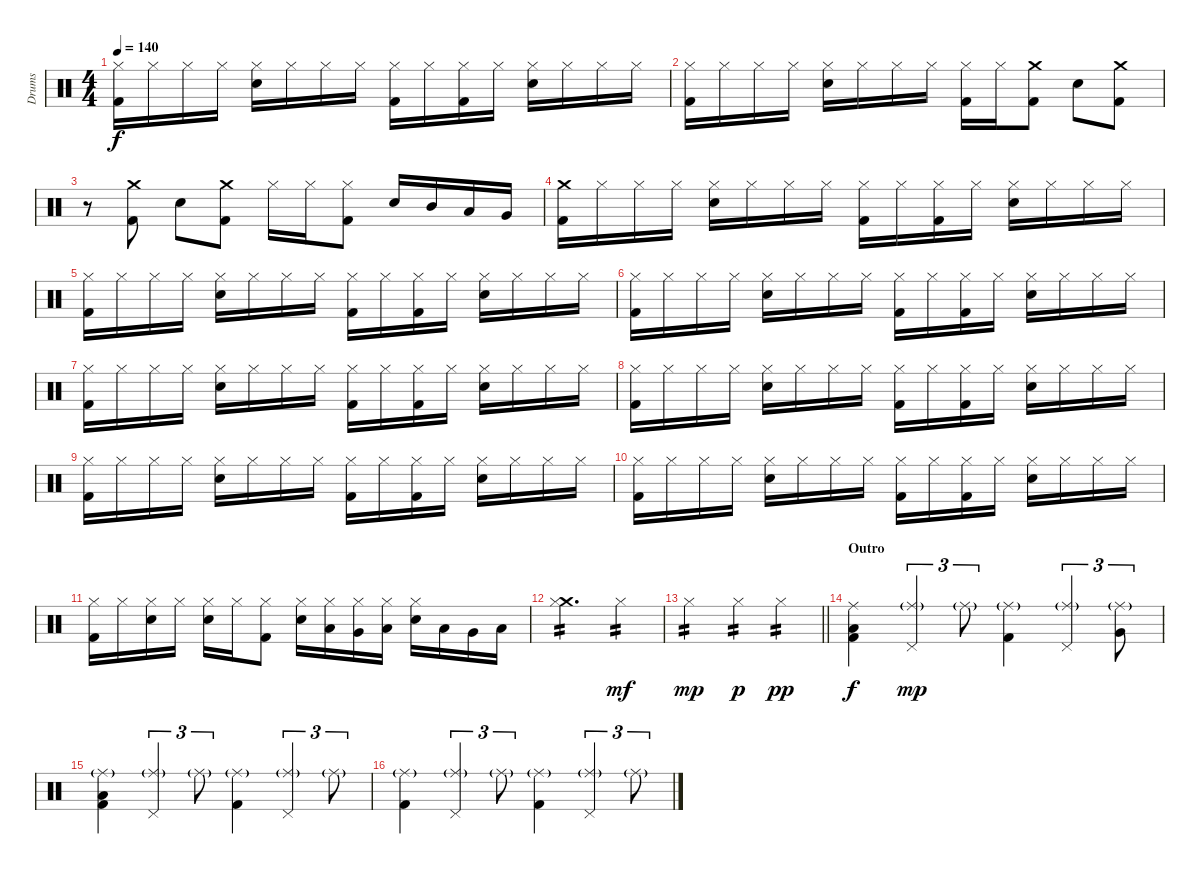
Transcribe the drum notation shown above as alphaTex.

\track ("Drums" "Drums") {instrument percussion}
\staff {score}
\articulation defaults
\ts (4 4)
\tempo 140
\clef neutral
\ks c
("Hi-Hat (closed)" "Kick (hit) 2").16{dy f} "Hi-Hat (closed)".16 "Hi-Hat (closed)".16 "Hi-Hat (closed)".16 ("Hi-Hat (closed)" "Snare (hit) 2").16 "Hi-Hat (closed)".16 "Hi-Hat (closed)".16 "Hi-Hat (closed)".16 ("Hi-Hat (closed)" "Kick (hit) 2").16 "Hi-Hat (closed)".16 ("Hi-Hat (closed)" "Kick (hit) 2").16 "Hi-Hat (closed)".16 ("Hi-Hat (closed)" "Snare (hit) 2").16 "Hi-Hat (closed)".16 "Hi-Hat (closed)".16 "Hi-Hat (closed)".16 |
("Hi-Hat (closed)" "Kick (hit) 2").16 "Hi-Hat (closed)".16 "Hi-Hat (closed)".16 "Hi-Hat (closed)".16 ("Hi-Hat (closed)" "Snare (hit) 2").16 "Hi-Hat (closed)".16 "Hi-Hat (closed)".16 "Hi-Hat (closed)".16 ("Hi-Hat (closed)" "Kick (hit) 2").16 "Hi-Hat (closed)".16 ("Crash medium (hit)" "Kick (hit) 2").8 "Snare (hit) 2".8 ("Crash medium (hit)" "Kick (hit) 2").8 |
r.8 ("Crash medium (hit)" "Kick (hit) 2").8 "Snare (hit) 2".8 ("Crash medium (hit)" "Kick (hit) 2").8 "Hi-Hat (closed)".16 "Hi-Hat (closed)".16 ("Hi-Hat (closed)" "Kick (hit) 2").8 "Snare (hit) 2".16 "Mid Tom (hit)".16 "Low Tom (hit)".16 "Very Low Tom (hit)".16 |
("Crash medium (hit)" "Kick (hit) 2").16 "Hi-Hat (closed)".16 "Hi-Hat (closed)".16 "Hi-Hat (closed)".16 ("Hi-Hat (closed)" "Snare (hit) 2").16 "Hi-Hat (closed)".16 "Hi-Hat (closed)".16 "Hi-Hat (closed)".16 ("Hi-Hat (closed)" "Kick (hit) 2").16 "Hi-Hat (closed)".16 ("Hi-Hat (closed)" "Kick (hit) 2").16 "Hi-Hat (closed)".16 ("Hi-Hat (closed)" "Snare (hit) 2").16 "Hi-Hat (closed)".16 "Hi-Hat (closed)".16 "Hi-Hat (closed)".16 |
("Hi-Hat (closed)" "Kick (hit) 2").16 "Hi-Hat (closed)".16 "Hi-Hat (closed)".16 "Hi-Hat (closed)".16 ("Hi-Hat (closed)" "Snare (hit) 2").16 "Hi-Hat (closed)".16 "Hi-Hat (closed)".16 "Hi-Hat (closed)".16 ("Hi-Hat (closed)" "Kick (hit) 2").16 "Hi-Hat (closed)".16 ("Hi-Hat (closed)" "Kick (hit) 2").16 "Hi-Hat (closed)".16 ("Hi-Hat (closed)" "Snare (hit) 2").16 "Hi-Hat (closed)".16 "Hi-Hat (closed)".16 "Hi-Hat (closed)".16 |
("Hi-Hat (closed)" "Kick (hit) 2").16 "Hi-Hat (closed)".16 "Hi-Hat (closed)".16 "Hi-Hat (closed)".16 ("Hi-Hat (closed)" "Snare (hit) 2").16 "Hi-Hat (closed)".16 "Hi-Hat (closed)".16 "Hi-Hat (closed)".16 ("Hi-Hat (closed)" "Kick (hit) 2").16 "Hi-Hat (closed)".16 ("Hi-Hat (closed)" "Kick (hit) 2").16 "Hi-Hat (closed)".16 ("Hi-Hat (closed)" "Snare (hit) 2").16 "Hi-Hat (closed)".16 "Hi-Hat (closed)".16 "Hi-Hat (closed)".16 |
("Hi-Hat (closed)" "Kick (hit) 2").16 "Hi-Hat (closed)".16 "Hi-Hat (closed)".16 "Hi-Hat (closed)".16 ("Hi-Hat (closed)" "Snare (hit) 2").16 "Hi-Hat (closed)".16 "Hi-Hat (closed)".16 "Hi-Hat (closed)".16 ("Hi-Hat (closed)" "Kick (hit) 2").16 "Hi-Hat (closed)".16 ("Hi-Hat (closed)" "Kick (hit) 2").16 "Hi-Hat (closed)".16 ("Hi-Hat (closed)" "Snare (hit) 2").16 "Hi-Hat (closed)".16 "Hi-Hat (closed)".16 "Hi-Hat (closed)".16 |
("Hi-Hat (closed)" "Kick (hit) 2").16 "Hi-Hat (closed)".16 "Hi-Hat (closed)".16 "Hi-Hat (closed)".16 ("Hi-Hat (closed)" "Snare (hit) 2").16 "Hi-Hat (closed)".16 "Hi-Hat (closed)".16 "Hi-Hat (closed)".16 ("Hi-Hat (closed)" "Kick (hit) 2").16 "Hi-Hat (closed)".16 ("Hi-Hat (closed)" "Kick (hit) 2").16 "Hi-Hat (closed)".16 ("Hi-Hat (closed)" "Snare (hit) 2").16 "Hi-Hat (closed)".16 "Hi-Hat (closed)".16 "Hi-Hat (closed)".16 |
("Hi-Hat (closed)" "Kick (hit) 2").16 "Hi-Hat (closed)".16 "Hi-Hat (closed)".16 "Hi-Hat (closed)".16 ("Hi-Hat (closed)" "Snare (hit) 2").16 "Hi-Hat (closed)".16 "Hi-Hat (closed)".16 "Hi-Hat (closed)".16 ("Hi-Hat (closed)" "Kick (hit) 2").16 "Hi-Hat (closed)".16 ("Hi-Hat (closed)" "Kick (hit) 2").16 "Hi-Hat (closed)".16 ("Hi-Hat (closed)" "Snare (hit) 2").16 "Hi-Hat (closed)".16 "Hi-Hat (closed)".16 "Hi-Hat (closed)".16 |
("Hi-Hat (closed)" "Kick (hit) 2").16 "Hi-Hat (closed)".16 "Hi-Hat (closed)".16 "Hi-Hat (closed)".16 ("Hi-Hat (closed)" "Snare (hit) 2").16 "Hi-Hat (closed)".16 "Hi-Hat (closed)".16 "Hi-Hat (closed)".16 ("Hi-Hat (closed)" "Kick (hit) 2").16 "Hi-Hat (closed)".16 ("Hi-Hat (closed)" "Kick (hit) 2").16 "Hi-Hat (closed)".16 ("Hi-Hat (closed)" "Snare (hit) 2").16 "Hi-Hat (closed)".16 "Hi-Hat (closed)".16 "Hi-Hat (closed)".16 |
("Hi-Hat (closed)" "Kick (hit) 2").16 "Hi-Hat (closed)".16 ("Hi-Hat (closed)" "Snare (hit) 2").16 "Hi-Hat (closed)".16 ("Hi-Hat (closed)" "Snare (hit) 2").16 "Hi-Hat (closed)".16 ("Hi-Hat (closed)" "Kick (hit) 2").8 ("Hi-Hat (closed)" "Snare (hit) 2").16 ("Hi-Hat (closed)" "Low Tom (hit)").16 ("Hi-Hat (closed)" "Very Low Tom (hit)").16 ("Hi-Hat (closed)" "Low Floor Tom (hit)").16 ("Hi-Hat (closed)" "Snare (hit) 2").16 "Low Tom (hit)".16 "Very Low Tom (hit)".16 "Low Floor Tom (hit)".16 |
("Crash medium (hit)" "Hi-Hat (closed)").2{d tp 2} "Hi-Hat (closed)".4{tp 2 dy mf} |
\barLineRight lightlight "Hi-Hat (closed)".2{tp 2 dy mp} "Hi-Hat (closed)".4{tp 2 dy p} "Hi-Hat (closed)".4{tp 2 dy pp}
|
\section ("" "Outro")
("Ride (middle)" "Low Floor Tom (hit)" "Kick (hit) 2").4{dy f volume 9} ("Ride (middle)"{g} "Pedal Hi-Hat (hit)").4{tu (3 2) dy mp} "Ride (middle)"{g}.8{tu (3 2)} ("Ride (middle)"{g} "Kick (hit) 2").4 ("Ride (middle)"{g} "Pedal Hi-Hat (hit)").4{tu (3 2)} ("Ride (middle)"{g} "Very Low Tom (hit)").8{tu (3 2)} |
("Ride (middle)"{g} "Low Floor Tom (hit)" "Kick (hit) 2").4 ("Ride (middle)"{g} "Pedal Hi-Hat (hit)").4{tu (3 2)} "Ride (middle)"{g}.8{tu (3 2)} ("Ride (middle)"{g} "Kick (hit) 2").4 ("Ride (middle)"{g} "Pedal Hi-Hat (hit)").4{tu (3 2)} "Ride (middle)"{g}.8{tu (3 2)} |
("Ride (middle)"{g} "Kick (hit) 2").4 ("Ride (middle)"{g} "Pedal Hi-Hat (hit)").4{tu (3 2)} "Ride (middle)"{g}.8{tu (3 2)} ("Ride (middle)"{g} "Kick (hit) 2").4 ("Ride (middle)"{g} "Pedal Hi-Hat (hit)").4{tu (3 2)} "Ride (middle)"{g}.8{tu (3 2)}
